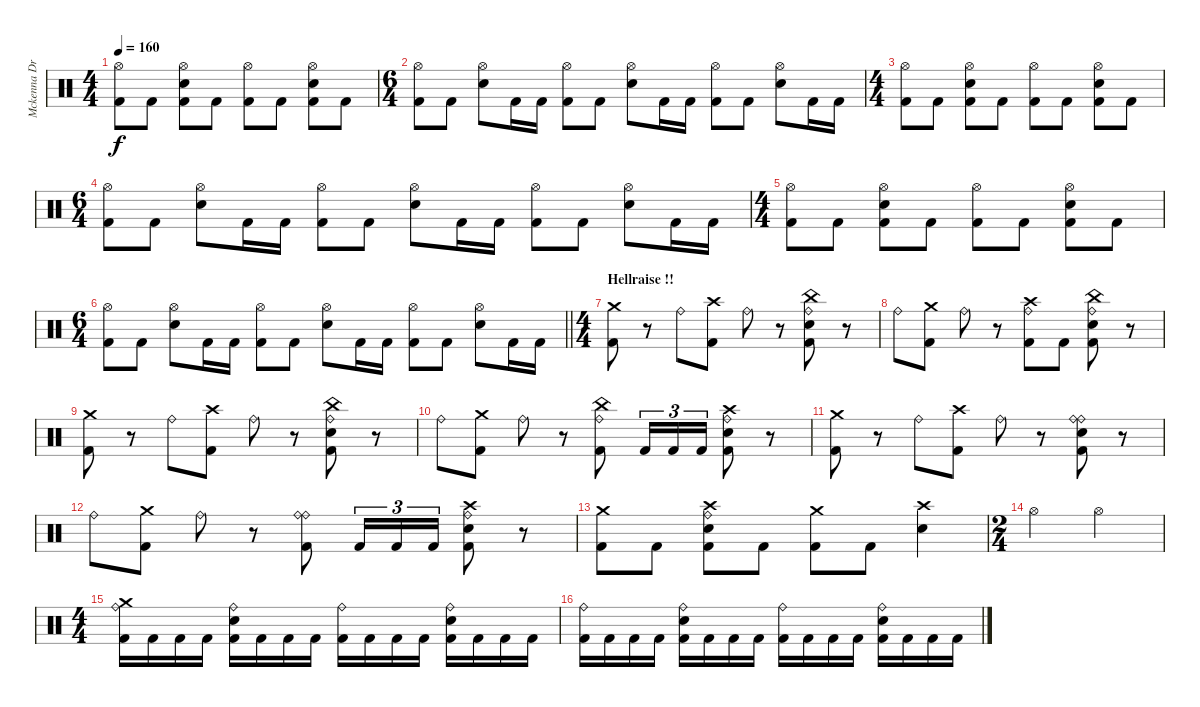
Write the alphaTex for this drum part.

\track ("Mckenna Drums" "Mckenna Dr") {instrument percussion}
\staff {score}
\articulation defaults
\ts (4 4)
\tempo 160
\clef neutral
\ks c
("Hi-Hat (open)" "Kick (hit) 2").8{dy f} "Kick (hit) 2".8 ("Hi-Hat (open)" "Electric Snare (hit)" "Kick (hit) 2").8 "Kick (hit) 2".8 ("Hi-Hat (open)" "Kick (hit) 2").8 "Kick (hit) 2".8 ("Hi-Hat (open)" "Electric Snare (hit)" "Kick (hit) 2").8 "Kick (hit) 2".8 |
\ts (6 4)
("Hi-Hat (open)" "Kick (hit) 2").8 "Kick (hit) 2".8 ("Hi-Hat (open)" "Electric Snare (hit)").8 "Kick (hit) 2".16 "Kick (hit) 2".16 ("Hi-Hat (open)" "Kick (hit) 2").8 "Kick (hit) 2".8 ("Hi-Hat (open)" "Electric Snare (hit)").8 "Kick (hit) 2".16 "Kick (hit) 2".16 ("Hi-Hat (open)" "Kick (hit) 2").8 "Kick (hit) 2".8 ("Hi-Hat (open)" "Electric Snare (hit)").8 "Kick (hit) 2".16 "Kick (hit) 2".16 |
\ts (4 4)
("Hi-Hat (open)" "Kick (hit) 2").8 "Kick (hit) 2".8 ("Hi-Hat (open)" "Electric Snare (hit)" "Kick (hit) 2").8 "Kick (hit) 2".8 ("Hi-Hat (open)" "Kick (hit) 2").8 "Kick (hit) 2".8 ("Hi-Hat (open)" "Electric Snare (hit)" "Kick (hit) 2").8 "Kick (hit) 2".8 |
\ts (6 4)
("Hi-Hat (open)" "Kick (hit) 2").8 "Kick (hit) 2".8 ("Hi-Hat (open)" "Electric Snare (hit)").8 "Kick (hit) 2".16 "Kick (hit) 2".16 ("Hi-Hat (open)" "Kick (hit) 2").8 "Kick (hit) 2".8 ("Hi-Hat (open)" "Electric Snare (hit)").8 "Kick (hit) 2".16 "Kick (hit) 2".16 ("Hi-Hat (open)" "Kick (hit) 2").8 "Kick (hit) 2".8 ("Hi-Hat (open)" "Electric Snare (hit)").8 "Kick (hit) 2".16 "Kick (hit) 2".16 |
\ts (4 4)
("Hi-Hat (open)" "Kick (hit) 2").8 "Kick (hit) 2".8 ("Hi-Hat (open)" "Electric Snare (hit)" "Kick (hit) 2").8 "Kick (hit) 2".8 ("Hi-Hat (open)" "Kick (hit) 2").8 "Kick (hit) 2".8 ("Hi-Hat (open)" "Electric Snare (hit)" "Kick (hit) 2").8 "Kick (hit) 2".8 |
\ts (6 4)
\barLineRight lightlight
("Hi-Hat (open)" "Kick (hit) 2").8 "Kick (hit) 2".8 ("Hi-Hat (open)" "Electric Snare (hit)").8 "Kick (hit) 2".16 "Kick (hit) 2".16 ("Hi-Hat (open)" "Kick (hit) 2").8 "Kick (hit) 2".8 ("Hi-Hat (open)" "Electric Snare (hit)").8 "Kick (hit) 2".16 "Kick (hit) 2".16 ("Hi-Hat (open)" "Kick (hit) 2").8 "Kick (hit) 2".8 ("Hi-Hat (open)" "Electric Snare (hit)").8 "Kick (hit) 2".16 "Kick (hit) 2".16 |
\ts (4 4)
\section ("" "Hellraise !!")
("Crash medium (hit)" "Kick (hit) 2").8 r.8 "Ride (bell)".8 ("Crash high (hit)" "Kick (hit) 2").8 "Ride (bell)".8 r.8 ("China (hit)" "Ride (bell)" "Electric Snare (hit)" "Kick (hit) 2").8 r.8 |
"Ride (bell)".8 ("Crash medium (hit)" "Kick (hit) 2").8 "Ride (bell)".8 r.8 ("Crash high (hit)" "Ride (bell)" "Kick (hit) 2").8 "Kick (hit) 2".8 ("China (hit)" "Ride (bell)" "Electric Snare (hit)" "Kick (hit) 2").8 r.8 |
("Crash medium (hit)" "Kick (hit) 2").8 r.8 "Ride (bell)".8 ("Crash high (hit)" "Kick (hit) 2").8 "Ride (bell)".8 r.8 ("China (hit)" "Ride (bell)" "Electric Snare (hit)" "Kick (hit) 2").8 r.8 |
"Ride (bell)".8 ("Crash medium (hit)" "Kick (hit) 2").8 "Ride (bell)".8 r.8 ("China (hit)" "Ride (bell)" "Kick (hit) 2").8 "Kick (hit) 2".16{tu (3 2)} "Kick (hit) 2".16{tu (3 2)} "Kick (hit) 2".16{tu (3 2)} ("Crash high (hit)" "Ride (bell)" "Electric Snare (hit)" "Kick (hit) 2").8 r.8 |
("Crash medium (hit)" "Kick (hit) 2").8 r.8 "Ride (bell)".8 ("Crash high (hit)" "Kick (hit) 2").8 "Ride (bell)".8 r.8 ("Ride (bell)" "Ride (bell)" "Electric Snare (hit)" "Kick (hit) 2").8 r.8 |
"Ride (bell)".8 ("Crash medium (hit)" "Kick (hit) 2").8 "Ride (bell)".8 r.8 ("Ride (bell)" "Ride (bell)" "Kick (hit) 2").8 "Kick (hit) 2".16{tu (3 2)} "Kick (hit) 2".16{tu (3 2)} "Kick (hit) 2".16{tu (3 2)} ("Crash high (hit)" "Ride (bell)" "Electric Snare (hit)" "Kick (hit) 2").8 r.8 |
("Crash medium (hit)" "Kick (hit) 2").8 "Kick (hit) 2".8 ("Ride (bell)" "Crash high (hit)" "Electric Snare (hit)" "Kick (hit) 2").8 "Kick (hit) 2".8 ("Crash medium (hit)" "Kick (hit) 2").8 "Kick (hit) 2".8 ("Crash high (hit)" "Electric Snare (hit)").4 |
\ts (2 4)
"Hi-Hat (open)".4 "Hi-Hat (open)".4 |
\ts (4 4)
("Crash medium (hit)" "Ride (bell)" "Kick (hit) 2").16 "Kick (hit) 2".16 "Kick (hit) 2".16 "Kick (hit) 2".16 ("Ride (bell)" "Electric Snare (hit)" "Kick (hit) 2").16 "Kick (hit) 2".16 "Kick (hit) 2".16 "Kick (hit) 2".16 ("Ride (bell)" "Kick (hit) 2").16 "Kick (hit) 2".16 "Kick (hit) 2".16 "Kick (hit) 2".16 ("Ride (bell)" "Electric Snare (hit)" "Kick (hit) 2").16 "Kick (hit) 2".16 "Kick (hit) 2".16 "Kick (hit) 2".16 |
("Ride (bell)" "Kick (hit) 2").16 "Kick (hit) 2".16 "Kick (hit) 2".16 "Kick (hit) 2".16 ("Ride (bell)" "Electric Snare (hit)" "Kick (hit) 2").16 "Kick (hit) 2".16 "Kick (hit) 2".16 "Kick (hit) 2".16 ("Ride (bell)" "Kick (hit) 2").16 "Kick (hit) 2".16 "Kick (hit) 2".16 "Kick (hit) 2".16 ("Ride (bell)" "Electric Snare (hit)" "Kick (hit) 2").16 "Kick (hit) 2".16 "Kick (hit) 2".16 "Kick (hit) 2".16
